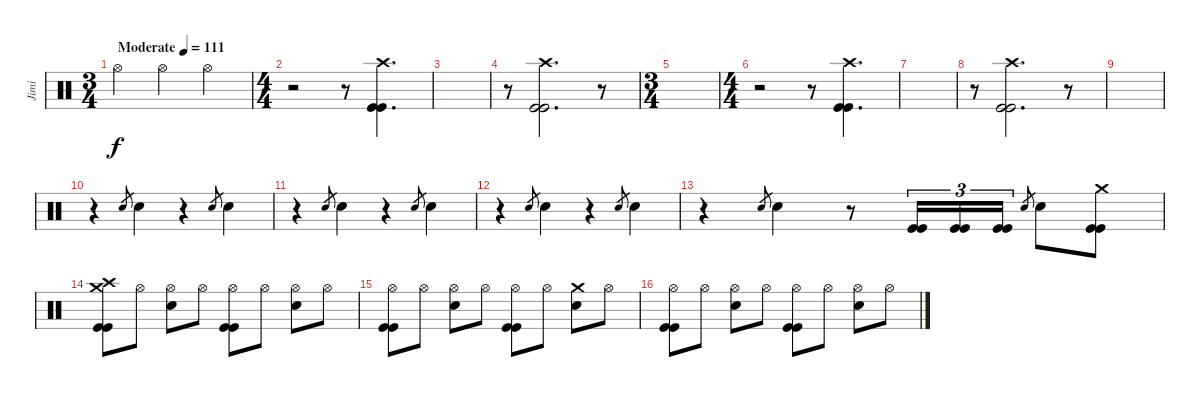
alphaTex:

\track ("Jimi" "Jimi") {instrument percussion}
\staff {score}
\articulation defaults
\ts (3 4)
\tempo (111 "Moderate")
\clef neutral
\ks c "Hi-Hat (open)".4{dy f} "Hi-Hat (open)".4 "Hi-Hat (open)".4
|
\ts (4 4)
r.2 r.8 ("Crash high (hit)" "Kick (hit)" "Kick (hit)").4{d} |
|
r.8 ("Crash high (hit)" "Kick (hit)" "Kick (hit)").2{d} r.8 |
\ts (3 4)
|
\ts (4 4)
r.2 r.8 ("Crash high (hit)" "Kick (hit)" "Kick (hit)").4{d} |
|
r.8 ("Crash high (hit)" "Kick (hit)" "Kick (hit)").2{d} r.8 |
|
r.4 "Electric Snare (hit)".8{gr} "Electric Snare (hit)".4 r.4 "Electric Snare (hit)".8{gr} "Electric Snare (hit)".4 |
r.4 "Electric Snare (hit)".8{gr} "Electric Snare (hit)".4 r.4 "Electric Snare (hit)".8{gr} "Electric Snare (hit)".4 |
r.4 "Electric Snare (hit)".8{gr} "Electric Snare (hit)".4 r.4 "Electric Snare (hit)".8{gr} "Electric Snare (hit)".4 |
r.4 "Electric Snare (hit)".8{gr} "Electric Snare (hit)".4 r.8 ("Kick (hit)" "Kick (hit)").16{tu (3 2)} ("Kick (hit)" "Kick (hit)").16{tu (3 2)} ("Kick (hit)" "Kick (hit)").16{tu (3 2)} "Electric Snare (hit)".8{gr} "Electric Snare (hit)".8 ("Crash medium (hit)" "Kick (hit)" "Kick (hit)").8 |
("Crash high (hit)" "Crash medium (hit)" "Kick (hit)" "Kick (hit)").8 "Hi-Hat (open)".8 ("Hi-Hat (open)" "Electric Snare (hit)").8 "Hi-Hat (open)".8 ("Hi-Hat (open)" "Kick (hit)" "Kick (hit)").8 "Hi-Hat (open)".8 ("Hi-Hat (open)" "Electric Snare (hit)").8 "Hi-Hat (open)".8 |
("Hi-Hat (open)" "Kick (hit)" "Kick (hit)").8 "Hi-Hat (open)".8 ("Hi-Hat (open)" "Electric Snare (hit)").8 "Hi-Hat (open)".8 ("Hi-Hat (open)" "Kick (hit)" "Kick (hit)").8 "Hi-Hat (open)".8 ("Crash medium (hit)" "Electric Snare (hit)").8 "Hi-Hat (open)".8 |
("Hi-Hat (open)" "Kick (hit)" "Kick (hit)").8 "Hi-Hat (open)".8 ("Hi-Hat (open)" "Electric Snare (hit)").8 "Hi-Hat (open)".8 ("Hi-Hat (open)" "Kick (hit)" "Kick (hit)").8 "Hi-Hat (open)".8 ("Hi-Hat (open)" "Electric Snare (hit)").8 "Hi-Hat (open)".8
